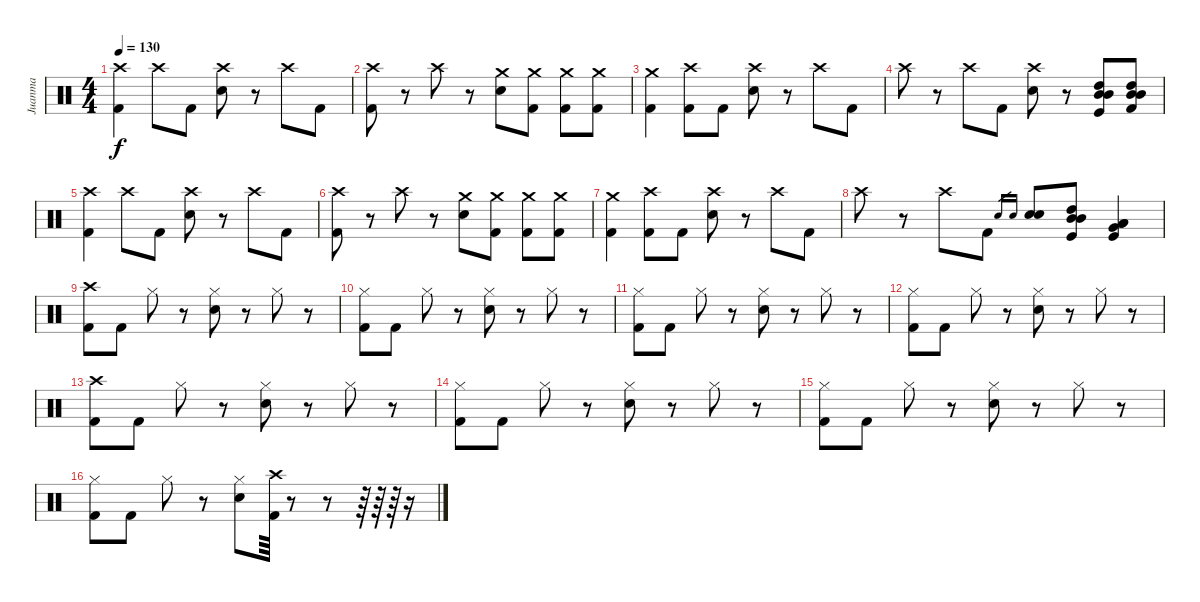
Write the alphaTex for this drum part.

\track ("Juanma" "Juanma") {instrument percussion}
\staff {score}
\articulation defaults
\ts (4 4)
\tempo 130
\clef neutral
\ks c
("Crash high (hit)" "Kick (hit) 2").4{dy f} "Crash high (hit)".8 "Kick (hit) 2".8 ("Crash high (hit)" "Electric Snare (hit)").8 r.8 "Crash high (hit)".8 "Kick (hit) 2".8 |
("Crash high (hit)" "Kick (hit) 2").8 r.8 "Crash high (hit)".8 r.8 ("Crash medium (hit)" "Electric Snare (hit)").8 ("Crash medium (hit)" "Kick (hit) 2").8 ("Crash medium (hit)" "Kick (hit) 2").8 ("Crash medium (hit)" "Kick (hit) 2").8 |
("Crash medium (hit)" "Kick (hit) 2").4 ("Crash high (hit)" "Kick (hit) 2").8 "Kick (hit) 2".8 ("Crash high (hit)" "Electric Snare (hit)").8 r.8 "Crash high (hit)".8 "Kick (hit) 2".8 |
"Crash high (hit)".8 r.8 "Crash high (hit)".8 "Kick (hit) 2".8 ("Crash high (hit)" "Electric Snare (hit)").8 r.8 ("Kick (hit)" "Mid Tom (hit)" "Mid Tom (hit)" "High Tom (hit)").8 ("Kick (hit) 2" "Mid Tom (hit)" "Mid Tom (hit)" "High Tom (hit)").8 |
("Crash high (hit)" "Kick (hit) 2").4 "Crash high (hit)".8 "Kick (hit) 2".8 ("Crash high (hit)" "Electric Snare (hit)").8 r.8 "Crash high (hit)".8 "Kick (hit) 2".8 |
("Crash high (hit)" "Kick (hit) 2").8 r.8 "Crash high (hit)".8 r.8 ("Crash medium (hit)" "Electric Snare (hit)").8 ("Crash medium (hit)" "Kick (hit) 2").8 ("Crash medium (hit)" "Kick (hit) 2").8 ("Crash medium (hit)" "Kick (hit) 2").8 |
("Crash medium (hit)" "Kick (hit) 2").4 ("Crash high (hit)" "Kick (hit) 2").8 "Kick (hit) 2".8 ("Crash high (hit)" "Electric Snare (hit)").8 r.8 "Crash high (hit)".8 "Kick (hit) 2".8 |
"Crash high (hit)".8 r.8 "Crash high (hit)".8 "Kick (hit) 2".8 "Electric Snare (hit)".16{gr} "Electric Snare (hit)".16{gr} ("Electric Snare (hit)" "Electric Snare (hit)").8 ("Kick (hit)" "Mid Tom (hit)" "Mid Tom (hit)" "High Tom (hit)").8 ("Kick (hit)" "Low Tom (hit)" "Low Tom (hit)" "Very Low Tom (hit)").4 |
("Crash high (hit)" "Kick (hit) 2").8 "Kick (hit) 2".8 "Hi-Hat (closed)".8 r.8 ("Hi-Hat (closed)" "Electric Snare (hit)").8 r.8 "Hi-Hat (closed)".8 r.8 |
("Hi-Hat (closed)" "Kick (hit) 2").8 "Kick (hit) 2".8 "Hi-Hat (closed)".8 r.8 ("Hi-Hat (closed)" "Electric Snare (hit)").8 r.8 "Hi-Hat (closed)".8 r.8 |
("Hi-Hat (closed)" "Kick (hit) 2").8 "Kick (hit) 2".8 "Hi-Hat (closed)".8 r.8 ("Hi-Hat (closed)" "Electric Snare (hit)").8 r.8 "Hi-Hat (closed)".8 r.8 |
("Hi-Hat (closed)" "Kick (hit) 2").8 "Kick (hit) 2".8 "Hi-Hat (closed)".8 r.8 ("Hi-Hat (closed)" "Electric Snare (hit)").8 r.8 "Hi-Hat (closed)".8 r.8 |
("Crash high (hit)" "Kick (hit) 2").8 "Kick (hit) 2".8 "Hi-Hat (closed)".8 r.8 ("Hi-Hat (closed)" "Electric Snare (hit)").8 r.8 "Hi-Hat (closed)".8 r.8 |
("Hi-Hat (closed)" "Kick (hit) 2").8 "Kick (hit) 2".8 "Hi-Hat (closed)".8 r.8 ("Hi-Hat (closed)" "Electric Snare (hit)").8 r.8 "Hi-Hat (closed)".8 r.8 |
("Hi-Hat (closed)" "Kick (hit) 2").8 "Kick (hit) 2".8 "Hi-Hat (closed)".8 r.8 ("Hi-Hat (closed)" "Electric Snare (hit)").8 r.8 "Hi-Hat (closed)".8 r.8 |
("Hi-Hat (closed)" "Kick (hit) 2").8 "Kick (hit) 2".8 "Hi-Hat (closed)".8 r.8 ("Hi-Hat (closed)" "Electric Snare (hit)").8 ("Crash high (hit)" "Kick (hit) 2").64 r.8 r.8 r.64 r.64 r.64 r.16
